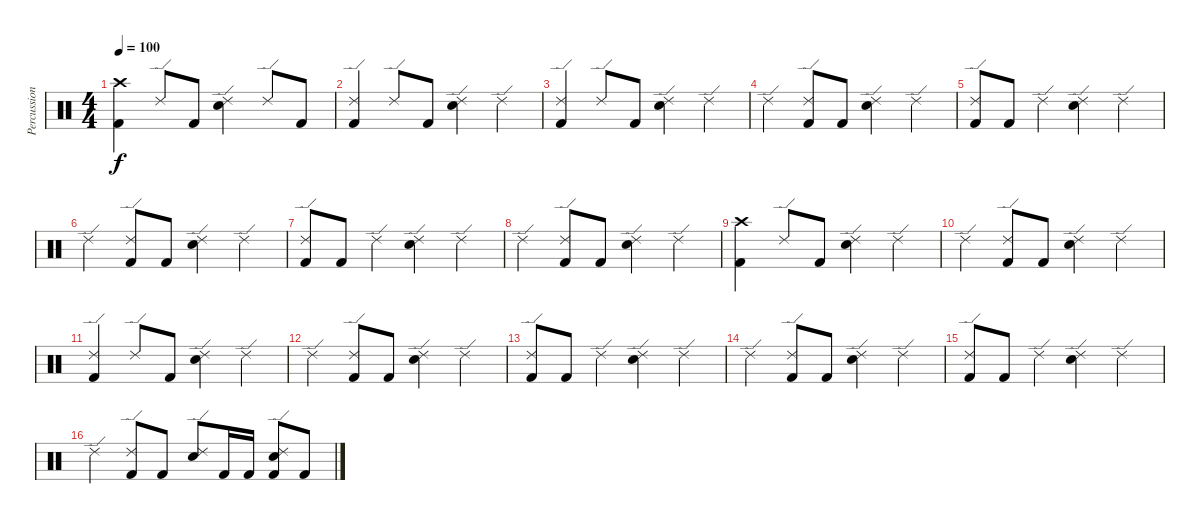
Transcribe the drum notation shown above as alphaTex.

\track ("Percussion" "Percussion") {instrument percussion}
\staff {score}
\articulation defaults
\ts (4 4)
\tempo 100
\clef neutral
\ks c
("Crash high (hit)" "Kick (hit) 2").4{dy f} "Ride (edge) 2".8 "Kick (hit) 2".8 ("Ride (edge) 2" "Electric Snare (hit)").4 "Ride (edge) 2".8 "Kick (hit) 2".8 |
("Ride (edge) 2" "Kick (hit) 2").4 "Ride (edge) 2".8 "Kick (hit) 2".8 ("Ride (edge) 2" "Electric Snare (hit)").4 "Ride (edge) 2".4 |
("Ride (edge) 2" "Kick (hit) 2").4 "Ride (edge) 2".8 "Kick (hit) 2".8 ("Ride (edge) 2" "Electric Snare (hit)").4 "Ride (edge) 2".4 |
"Ride (edge) 2".4 ("Ride (edge) 2" "Kick (hit) 2").8 "Kick (hit) 2".8 ("Ride (edge) 2" "Electric Snare (hit)").4 "Ride (edge) 2".4 |
("Ride (edge) 2" "Kick (hit) 2").8 "Kick (hit) 2".8 "Ride (edge) 2".4 ("Ride (edge) 2" "Electric Snare (hit)").4 "Ride (edge) 2".4 |
"Ride (edge) 2".4 ("Ride (edge) 2" "Kick (hit) 2").8 "Kick (hit) 2".8 ("Ride (edge) 2" "Electric Snare (hit)").4 "Ride (edge) 2".4 |
("Ride (edge) 2" "Kick (hit) 2").8 "Kick (hit) 2".8 "Ride (edge) 2".4 ("Ride (edge) 2" "Electric Snare (hit)").4 "Ride (edge) 2".4 |
"Ride (edge) 2".4 ("Ride (edge) 2" "Kick (hit) 2").8 "Kick (hit) 2".8 ("Ride (edge) 2" "Electric Snare (hit)").4 "Ride (edge) 2".4 |
("Crash high (hit)" "Kick (hit) 2").4 "Ride (edge) 2".8 "Kick (hit) 2".8 ("Ride (edge) 2" "Electric Snare (hit)").4 "Ride (edge) 2".4 |
"Ride (edge) 2".4 ("Ride (edge) 2" "Kick (hit) 2").8 "Kick (hit) 2".8 ("Ride (edge) 2" "Electric Snare (hit)").4 "Ride (edge) 2".4 |
("Ride (edge) 2" "Kick (hit) 2").4 "Ride (edge) 2".8 "Kick (hit) 2".8 ("Ride (edge) 2" "Electric Snare (hit)").4 "Ride (edge) 2".4 |
"Ride (edge) 2".4 ("Ride (edge) 2" "Kick (hit) 2").8 "Kick (hit) 2".8 ("Ride (edge) 2" "Electric Snare (hit)").4 "Ride (edge) 2".4 |
("Ride (edge) 2" "Kick (hit) 2").8 "Kick (hit) 2".8 "Ride (edge) 2".4 ("Ride (edge) 2" "Electric Snare (hit)").4 "Ride (edge) 2".4 |
"Ride (edge) 2".4 ("Ride (edge) 2" "Kick (hit) 2").8 "Kick (hit) 2".8 ("Ride (edge) 2" "Electric Snare (hit)").4 "Ride (edge) 2".4 |
("Ride (edge) 2" "Kick (hit) 2").8 "Kick (hit) 2".8 "Ride (edge) 2".4 ("Ride (edge) 2" "Electric Snare (hit)").4 "Ride (edge) 2".4 |
"Ride (edge) 2".4 ("Ride (edge) 2" "Kick (hit) 2").8 "Kick (hit) 2".8 ("Ride (edge) 2" "Electric Snare (hit)").8 "Kick (hit) 2".16 "Kick (hit) 2".16 ("Ride (edge) 2" "Electric Snare (hit)" "Kick (hit) 2").8 "Kick (hit) 2".8
